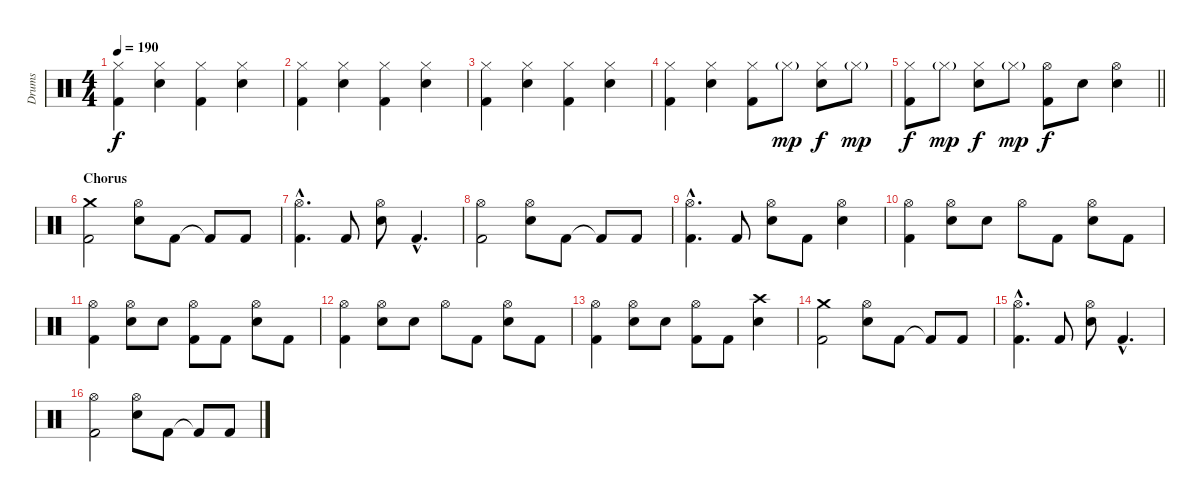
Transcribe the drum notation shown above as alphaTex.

\track ("Drums" "Drums") {instrument percussion}
\staff {score}
\articulation defaults
\ts (4 4)
\tempo 190
\clef neutral
\ks c
("Hi-Hat (closed)" "Kick (hit) 2").4{dy f} ("Hi-Hat (closed)" "Electric Snare (hit)").4 ("Hi-Hat (closed)" "Kick (hit) 2").4 ("Hi-Hat (closed)" "Electric Snare (hit)").4 |
("Hi-Hat (closed)" "Kick (hit) 2").4 ("Hi-Hat (closed)" "Electric Snare (hit)").4 ("Hi-Hat (closed)" "Kick (hit) 2").4 ("Hi-Hat (closed)" "Electric Snare (hit)").4 |
("Hi-Hat (closed)" "Kick (hit) 2").4 ("Hi-Hat (closed)" "Electric Snare (hit)").4 ("Hi-Hat (closed)" "Kick (hit) 2").4 ("Hi-Hat (closed)" "Electric Snare (hit)").4 |
("Hi-Hat (closed)" "Kick (hit) 2").4 ("Hi-Hat (closed)" "Electric Snare (hit)").4 ("Hi-Hat (closed)" "Kick (hit) 2").8 "Hi-Hat (closed)"{g}.8{dy mp} ("Hi-Hat (closed)" "Electric Snare (hit)").8{dy f} "Hi-Hat (closed)"{g}.8{dy mp} |
\barLineRight lightlight
("Hi-Hat (closed)" "Kick (hit) 2").8{dy f} "Hi-Hat (closed)"{g}.8{dy mp} ("Hi-Hat (closed)" "Electric Snare (hit)").8{dy f} "Hi-Hat (closed)"{g}.8{dy mp} ("Hi-Hat (open)" "Kick (hit) 2").8{dy f} "Electric Snare (hit)".8 ("Hi-Hat (open)" "Electric Snare (hit)").4 |
\section ("" "Chorus")
("Crash medium (hit)" "Kick (hit) 2").2 ("Hi-Hat (open)" "Electric Snare (hit)").8 "Kick (hit) 2".8 "Kick (hit) 2"{t}.8 "Kick (hit) 2".8 |
("Hi-Hat (open)"{hac} "Kick (hit) 2"{hac}).4{d} "Kick (hit) 2".8 ("Hi-Hat (open)" "Electric Snare (hit)").8 "Kick (hit) 2"{hac}.4{d} |
("Hi-Hat (open)" "Kick (hit) 2").2 ("Hi-Hat (open)" "Electric Snare (hit)").8 "Kick (hit) 2".8 "Kick (hit) 2"{t}.8 "Kick (hit) 2".8 |
("Hi-Hat (open)"{hac} "Kick (hit) 2"{hac}).4{d} "Kick (hit) 2".8 ("Hi-Hat (open)" "Electric Snare (hit)").8 "Kick (hit) 2".8 ("Hi-Hat (open)" "Electric Snare (hit)").4 |
("Hi-Hat (open)" "Kick (hit) 2").4 ("Hi-Hat (open)" "Electric Snare (hit)").8 "Electric Snare (hit)".8 "Hi-Hat (open)".8 "Kick (hit) 2".8 ("Hi-Hat (open)" "Electric Snare (hit)").8 "Kick (hit) 2".8 |
("Hi-Hat (open)" "Kick (hit) 2").4 ("Hi-Hat (open)" "Electric Snare (hit)").8 "Electric Snare (hit)".8 ("Hi-Hat (open)" "Kick (hit) 2").8 "Kick (hit) 2".8 ("Hi-Hat (open)" "Electric Snare (hit)").8 "Kick (hit) 2".8 |
("Hi-Hat (open)" "Kick (hit) 2").4 ("Hi-Hat (open)" "Electric Snare (hit)").8 "Electric Snare (hit)".8 "Hi-Hat (open)".8 "Kick (hit) 2".8 ("Hi-Hat (open)" "Electric Snare (hit)").8 "Kick (hit) 2".8 |
("Hi-Hat (open)" "Kick (hit) 2").4 ("Hi-Hat (open)" "Electric Snare (hit)").8 "Electric Snare (hit)".8 ("Hi-Hat (open)" "Kick (hit) 2").8 "Kick (hit) 2".8 ("Crash high (hit)" "Electric Snare (hit)").4 |
("Crash medium (hit)" "Kick (hit) 2").2 ("Hi-Hat (open)" "Electric Snare (hit)").8 "Kick (hit) 2".8 "Kick (hit) 2"{t}.8 "Kick (hit) 2".8 |
("Hi-Hat (open)"{hac} "Kick (hit) 2"{hac}).4{d} "Kick (hit) 2".8 ("Hi-Hat (open)" "Electric Snare (hit)").8 "Kick (hit) 2"{hac}.4{d} |
("Hi-Hat (open)" "Kick (hit) 2").2 ("Hi-Hat (open)" "Electric Snare (hit)").8 "Kick (hit) 2".8 "Kick (hit) 2"{t}.8 "Kick (hit) 2".8
